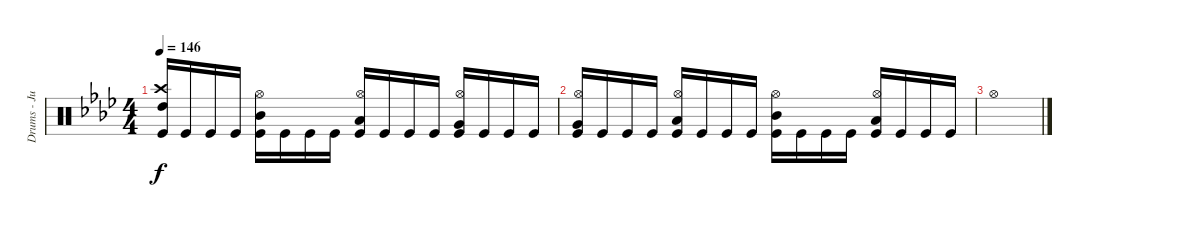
\track ("Drums - Jukka" "Drums - Ju") {instrument percussion}
\staff {score}
\articulation defaults
\ts (4 4)
\tempo 146
\clef neutral
\ks fminor
("Kick (hit)" "Crash high (hit)" "High Tom (hit)").16{dy f} "Kick (hit)".16 "Kick (hit)".16 "Kick (hit)".16 ("Kick (hit)" "Mid Tom (hit)" "Hi-Hat (open)").16 "Kick (hit)".16 "Kick (hit)".16 "Kick (hit)".16 ("Kick (hit)" "Low Tom (hit)" "Hi-Hat (open)").16 "Kick (hit)".16 "Kick (hit)".16 "Kick (hit)".16 ("Kick (hit)" "Very Low Tom (hit)" "Hi-Hat (open)").16 "Kick (hit)".16 "Kick (hit)".16 "Kick (hit)".16 |
("Kick (hit)" "Hi-Hat (open)" "Very Low Tom (hit)").16 "Kick (hit)".16 "Kick (hit)".16 "Kick (hit)".16 ("Kick (hit)" "Hi-Hat (open)" "Low Tom (hit)").16 "Kick (hit)".16 "Kick (hit)".16 "Kick (hit)".16 ("Kick (hit)" "Hi-Hat (open)" "Mid Tom (hit)").16 "Kick (hit)".16 "Kick (hit)".16 "Kick (hit)".16 ("Kick (hit)" "Hi-Hat (open)" "Low Tom (hit)").16 "Kick (hit)".16 "Kick (hit)".16 "Kick (hit)".16 |
"Hi-Hat (open)".1
